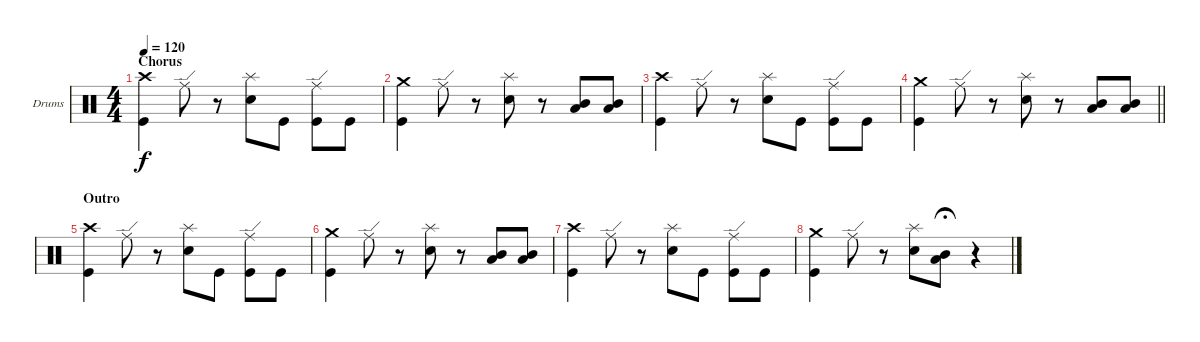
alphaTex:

\bracketExtendMode groupsimilarinstruments
\firstSystemTrackNameOrientation horizontal
\otherSystemsTrackNameOrientation horizontal
\track ("Drumkit" "Drums") {instrument percussion}
\staff {score}
\articulation defaults
\ts (4 4)
\section ("" "Chorus")
\tempo 120
\clef neutral
\ks c
("Crash high (hit)" "Kick (hit)").4{dy f} "Ride (edge)".8 r.8 ("Splash (hit)" "Snare (hit) 2").8 "Kick (hit)".8 ("Ride (edge)" "Kick (hit)").8 "Kick (hit)".8 |
("Crash medium (hit)" "Kick (hit)").4 "Ride (edge)".8 r.8 ("Splash (hit)" "Snare (hit) 2").8 r.8 ("Mid Tom (hit)" "Low Tom (hit)").8 ("Mid Tom (hit)" "Low Tom (hit)").8 |
("Crash high (hit)" "Kick (hit)").4 "Ride (edge)".8 r.8 ("Splash (hit)" "Snare (hit) 2").8 "Kick (hit)".8 ("Ride (edge)" "Kick (hit)").8 "Kick (hit)".8 |
\barLineRight lightlight
("Crash medium (hit)" "Kick (hit)").4 "Ride (edge)".8 r.8 ("Splash (hit)" "Snare (hit) 2").8 r.8 ("Mid Tom (hit)" "Low Tom (hit)").8 ("Mid Tom (hit)" "Low Tom (hit)").8 |
\section ("" "Outro")
("Crash high (hit)" "Kick (hit)").4 "Ride (edge)".8 r.8 ("Splash (hit)" "Snare (hit) 2").8 "Kick (hit)".8 ("Ride (edge)" "Kick (hit)").8 "Kick (hit)".8 |
("Crash medium (hit)" "Kick (hit)").4 "Ride (edge)".8 r.8 ("Splash (hit)" "Snare (hit) 2").8 r.8 ("Mid Tom (hit)" "Low Tom (hit)").8 ("Mid Tom (hit)" "Low Tom (hit)").8 |
("Crash high (hit)" "Kick (hit)").4 "Ride (edge)".8 r.8 ("Splash (hit)" "Snare (hit) 2").8 "Kick (hit)".8 ("Ride (edge)" "Kick (hit)").8 "Kick (hit)".8 |
("Crash medium (hit)" "Kick (hit)").4 "Ride (edge)".8 r.8 ("Splash (hit)" "Snare (hit) 2").8 ("Mid Tom (hit)" "Low Tom (hit)").8{fermata (medium 0.99)} r.4
